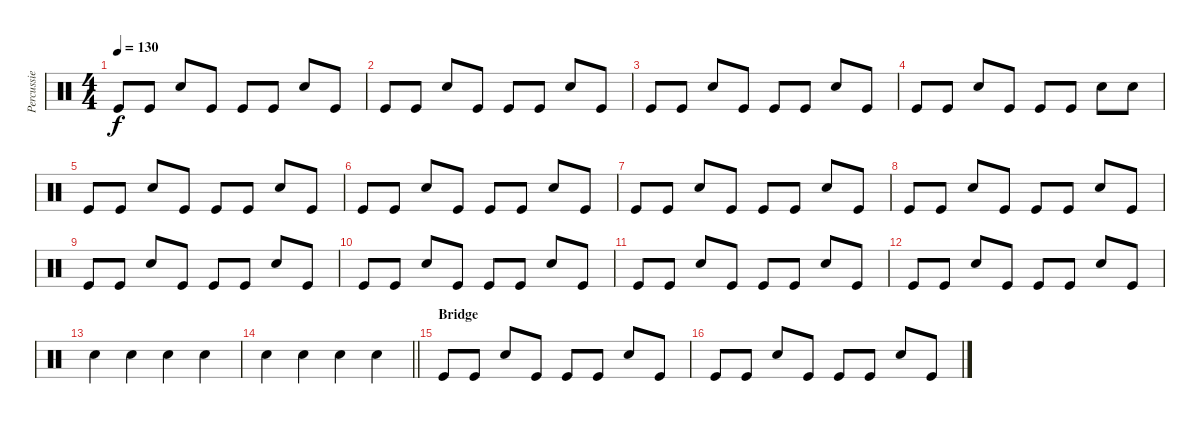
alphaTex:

\track ("Percussie" "Percussie") {instrument percussion}
\staff {score}
\articulation defaults
\ts (4 4)
\tempo 130
\clef neutral
\ks c "Kick (hit)".8{dy f} "Kick (hit)".8 "Snare (hit) 2".8 "Kick (hit)".8 "Kick (hit)".8 "Kick (hit)".8 "Snare (hit) 2".8 "Kick (hit)".8
|
"Kick (hit)".8 "Kick (hit)".8 "Snare (hit) 2".8 "Kick (hit)".8 "Kick (hit)".8 "Kick (hit)".8 "Snare (hit) 2".8 "Kick (hit)".8 |
"Kick (hit)".8 "Kick (hit)".8 "Snare (hit) 2".8 "Kick (hit)".8 "Kick (hit)".8 "Kick (hit)".8 "Snare (hit) 2".8 "Kick (hit)".8 |
"Kick (hit)".8 "Kick (hit)".8 "Snare (hit) 2".8 "Kick (hit)".8 "Kick (hit)".8 "Kick (hit)".8 "Snare (hit) 2".8 "Snare (hit) 2".8 |
"Kick (hit)".8 "Kick (hit)".8 "Snare (hit) 2".8 "Kick (hit)".8 "Kick (hit)".8 "Kick (hit)".8 "Snare (hit) 2".8 "Kick (hit)".8 |
"Kick (hit)".8 "Kick (hit)".8 "Snare (hit) 2".8 "Kick (hit)".8 "Kick (hit)".8 "Kick (hit)".8 "Snare (hit) 2".8 "Kick (hit)".8 |
"Kick (hit)".8 "Kick (hit)".8 "Snare (hit) 2".8 "Kick (hit)".8 "Kick (hit)".8 "Kick (hit)".8 "Snare (hit) 2".8 "Kick (hit)".8 |
"Kick (hit)".8 "Kick (hit)".8 "Snare (hit) 2".8 "Kick (hit)".8 "Kick (hit)".8 "Kick (hit)".8 "Snare (hit) 2".8 "Kick (hit)".8 |
"Kick (hit)".8 "Kick (hit)".8 "Snare (hit) 2".8 "Kick (hit)".8 "Kick (hit)".8 "Kick (hit)".8 "Snare (hit) 2".8 "Kick (hit)".8 |
"Kick (hit)".8 "Kick (hit)".8 "Snare (hit) 2".8 "Kick (hit)".8 "Kick (hit)".8 "Kick (hit)".8 "Snare (hit) 2".8 "Kick (hit)".8 |
"Kick (hit)".8 "Kick (hit)".8 "Snare (hit) 2".8 "Kick (hit)".8 "Kick (hit)".8 "Kick (hit)".8 "Snare (hit) 2".8 "Kick (hit)".8 |
"Kick (hit)".8 "Kick (hit)".8 "Snare (hit) 2".8 "Kick (hit)".8 "Kick (hit)".8 "Kick (hit)".8 "Snare (hit) 2".8 "Kick (hit)".8 |
"Snare (hit) 2".4 "Snare (hit) 2".4 "Snare (hit) 2".4 "Snare (hit) 2".4 |
\barLineRight lightlight "Snare (hit) 2".4 "Snare (hit) 2".4 "Snare (hit) 2".4 "Snare (hit) 2".4
|
\section ("" "Bridge")
"Kick (hit)".8 "Kick (hit)".8 "Snare (hit) 2".8 "Kick (hit)".8 "Kick (hit)".8 "Kick (hit)".8 "Snare (hit) 2".8 "Kick (hit)".8 |
"Kick (hit)".8 "Kick (hit)".8 "Snare (hit) 2".8 "Kick (hit)".8 "Kick (hit)".8 "Kick (hit)".8 "Snare (hit) 2".8 "Kick (hit)".8
